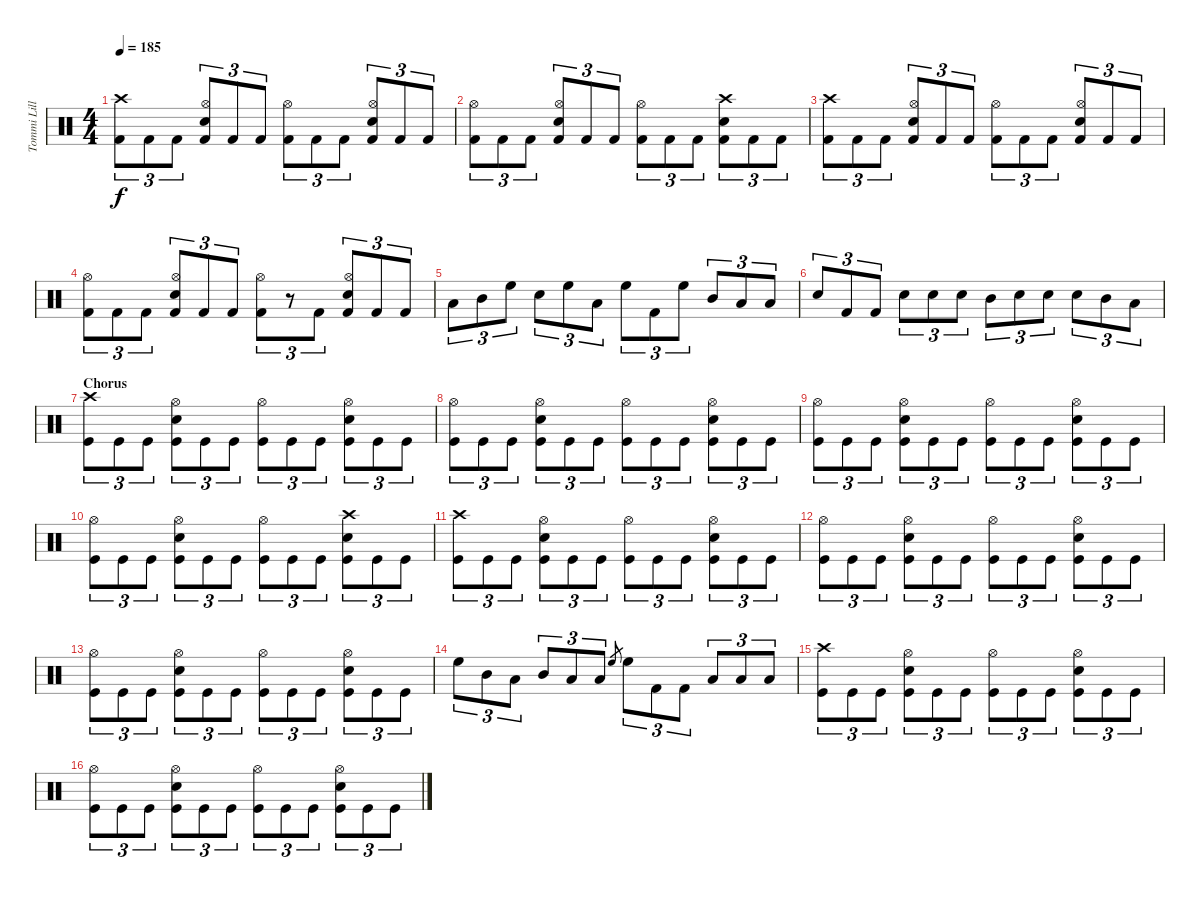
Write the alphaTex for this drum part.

\track ("Tommi Lillman" "Tommi Lill") {instrument percussion}
\staff {score}
\articulation defaults
\ts (4 4)
\tempo 185
\clef neutral
\ks c
("Crash high (hit)" "Kick (hit) 2").8{tu (3 2) dy f} "Kick (hit) 2".8{tu (3 2)} "Kick (hit) 2".8{tu (3 2)} ("Hi-Hat (open)" "Snare (hit) 2" "Kick (hit) 2").8{tu (3 2)} "Kick (hit) 2".8{tu (3 2)} "Kick (hit) 2".8{tu (3 2)} ("Hi-Hat (open)" "Kick (hit) 2").8{tu (3 2)} "Kick (hit) 2".8{tu (3 2)} "Kick (hit) 2".8{tu (3 2)} ("Hi-Hat (open)" "Snare (hit) 2" "Kick (hit) 2").8{tu (3 2)} "Kick (hit) 2".8{tu (3 2)} "Kick (hit) 2".8{tu (3 2)} |
("Hi-Hat (open)" "Kick (hit) 2").8{tu (3 2)} "Kick (hit) 2".8{tu (3 2)} "Kick (hit) 2".8{tu (3 2)} ("Hi-Hat (open)" "Snare (hit) 2" "Kick (hit) 2").8{tu (3 2)} "Kick (hit) 2".8{tu (3 2)} "Kick (hit) 2".8{tu (3 2)} ("Hi-Hat (open)" "Kick (hit) 2").8{tu (3 2)} "Kick (hit) 2".8{tu (3 2)} "Kick (hit) 2".8{tu (3 2)} ("Crash high (hit)" "Snare (hit) 2" "Kick (hit) 2").8{tu (3 2)} "Kick (hit) 2".8{tu (3 2)} "Kick (hit) 2".8{tu (3 2)} |
("Crash high (hit)" "Kick (hit) 2").8{tu (3 2)} "Kick (hit) 2".8{tu (3 2)} "Kick (hit) 2".8{tu (3 2)} ("Hi-Hat (open)" "Snare (hit) 2" "Kick (hit) 2").8{tu (3 2)} "Kick (hit) 2".8{tu (3 2)} "Kick (hit) 2".8{tu (3 2)} ("Hi-Hat (open)" "Kick (hit) 2").8{tu (3 2)} "Kick (hit) 2".8{tu (3 2)} "Kick (hit) 2".8{tu (3 2)} ("Hi-Hat (open)" "Snare (hit) 2" "Kick (hit) 2").8{tu (3 2)} "Kick (hit) 2".8{tu (3 2)} "Kick (hit) 2".8{tu (3 2)} |
("Hi-Hat (open)" "Kick (hit) 2").8{tu (3 2)} "Kick (hit) 2".8{tu (3 2)} "Kick (hit) 2".8{tu (3 2)} ("Hi-Hat (open)" "Snare (hit) 2" "Kick (hit) 2").8{tu (3 2)} "Kick (hit) 2".8{tu (3 2)} "Kick (hit) 2".8{tu (3 2)} ("Hi-Hat (open)" "Kick (hit) 2").8{tu (3 2)} r.8{tu (3 2)} "Kick (hit) 2".8{tu (3 2)} ("Hi-Hat (open)" "Snare (hit) 2" "Kick (hit) 2").8{tu (3 2)} "Kick (hit) 2".8{tu (3 2)} "Kick (hit) 2".8{tu (3 2)} |
"Low Tom (hit)".8{tu (3 2)} "Mid Tom (hit)".8{tu (3 2)} "High Floor Tom (hit)".8{tu (3 2)} "Snare (hit) 2".8{tu (3 2)} "High Floor Tom (hit)".8{tu (3 2)} "Low Floor Tom (hit)".8{tu (3 2)} "High Floor Tom (hit)".8{tu (3 2)} "Kick (hit) 2".8{tu (3 2)} "High Floor Tom (hit)".8{tu (3 2)} "Mid Tom (hit)".8{tu (3 2)} "Low Tom (hit)".8{tu (3 2)} "Low Tom (hit)".8{tu (3 2)} |
"Snare (hit) 2".8{tu (3 2)} "Kick (hit) 2".8{tu (3 2)} "Kick (hit) 2".8{tu (3 2)} "Snare (hit) 2".8{tu (3 2)} "Snare (hit) 2".8{tu (3 2)} "Snare (hit) 2".8{tu (3 2)} "Mid Tom (hit)".8{tu (3 2)} "Snare (hit) 2".8{tu (3 2)} "Snare (hit) 2".8{tu (3 2)} "Snare (hit) 2".8{tu (3 2)} "Mid Tom (hit)".8{tu (3 2)} "Low Tom (hit)".8{tu (3 2)} |
\section ("" "Chorus")
("Crash high (hit)" "Kick (hit)").8{tu (3 2)} "Kick (hit)".8{tu (3 2)} "Kick (hit)".8{tu (3 2)} ("Hi-Hat (open)" "Snare (hit) 2" "Kick (hit)").8{tu (3 2)} "Kick (hit)".8{tu (3 2)} "Kick (hit)".8{tu (3 2)} ("Hi-Hat (open)" "Kick (hit)").8{tu (3 2)} "Kick (hit)".8{tu (3 2)} "Kick (hit)".8{tu (3 2)} ("Hi-Hat (open)" "Snare (hit) 2" "Kick (hit)").8{tu (3 2)} "Kick (hit)".8{tu (3 2)} "Kick (hit)".8{tu (3 2)} |
("Hi-Hat (open)" "Kick (hit)").8{tu (3 2)} "Kick (hit)".8{tu (3 2)} "Kick (hit)".8{tu (3 2)} ("Hi-Hat (open)" "Snare (hit) 2" "Kick (hit)").8{tu (3 2)} "Kick (hit)".8{tu (3 2)} "Kick (hit)".8{tu (3 2)} ("Hi-Hat (open)" "Kick (hit)").8{tu (3 2)} "Kick (hit)".8{tu (3 2)} "Kick (hit)".8{tu (3 2)} ("Hi-Hat (open)" "Snare (hit) 2" "Kick (hit)").8{tu (3 2)} "Kick (hit)".8{tu (3 2)} "Kick (hit)".8{tu (3 2)} |
("Hi-Hat (open)" "Kick (hit)").8{tu (3 2)} "Kick (hit)".8{tu (3 2)} "Kick (hit)".8{tu (3 2)} ("Hi-Hat (open)" "Snare (hit) 2" "Kick (hit)").8{tu (3 2)} "Kick (hit)".8{tu (3 2)} "Kick (hit)".8{tu (3 2)} ("Hi-Hat (open)" "Kick (hit)").8{tu (3 2)} "Kick (hit)".8{tu (3 2)} "Kick (hit)".8{tu (3 2)} ("Hi-Hat (open)" "Snare (hit) 2" "Kick (hit)").8{tu (3 2)} "Kick (hit)".8{tu (3 2)} "Kick (hit)".8{tu (3 2)} |
("Hi-Hat (open)" "Kick (hit)").8{tu (3 2)} "Kick (hit)".8{tu (3 2)} "Kick (hit)".8{tu (3 2)} ("Hi-Hat (open)" "Snare (hit) 2" "Kick (hit)").8{tu (3 2)} "Kick (hit)".8{tu (3 2)} "Kick (hit)".8{tu (3 2)} ("Hi-Hat (open)" "Kick (hit)").8{tu (3 2)} "Kick (hit)".8{tu (3 2)} "Kick (hit)".8{tu (3 2)} ("Crash high (hit)" "Snare (hit) 2" "Kick (hit)").8{tu (3 2)} "Kick (hit)".8{tu (3 2)} "Kick (hit)".8{tu (3 2)} |
("Crash high (hit)" "Kick (hit)").8{tu (3 2)} "Kick (hit)".8{tu (3 2)} "Kick (hit)".8{tu (3 2)} ("Hi-Hat (open)" "Snare (hit) 2" "Kick (hit)").8{tu (3 2)} "Kick (hit)".8{tu (3 2)} "Kick (hit)".8{tu (3 2)} ("Hi-Hat (open)" "Kick (hit)").8{tu (3 2)} "Kick (hit)".8{tu (3 2)} "Kick (hit)".8{tu (3 2)} ("Hi-Hat (open)" "Snare (hit) 2" "Kick (hit)").8{tu (3 2)} "Kick (hit)".8{tu (3 2)} "Kick (hit)".8{tu (3 2)} |
("Hi-Hat (open)" "Kick (hit)").8{tu (3 2)} "Kick (hit)".8{tu (3 2)} "Kick (hit)".8{tu (3 2)} ("Hi-Hat (open)" "Snare (hit) 2" "Kick (hit)").8{tu (3 2)} "Kick (hit)".8{tu (3 2)} "Kick (hit)".8{tu (3 2)} ("Hi-Hat (open)" "Kick (hit)").8{tu (3 2)} "Kick (hit)".8{tu (3 2)} "Kick (hit)".8{tu (3 2)} ("Hi-Hat (open)" "Snare (hit) 2" "Kick (hit)").8{tu (3 2)} "Kick (hit)".8{tu (3 2)} "Kick (hit)".8{tu (3 2)} |
("Hi-Hat (open)" "Kick (hit)").8{tu (3 2)} "Kick (hit)".8{tu (3 2)} "Kick (hit)".8{tu (3 2)} ("Hi-Hat (open)" "Snare (hit) 2" "Kick (hit)").8{tu (3 2)} "Kick (hit)".8{tu (3 2)} "Kick (hit)".8{tu (3 2)} ("Hi-Hat (open)" "Kick (hit)").8{tu (3 2)} "Kick (hit)".8{tu (3 2)} "Kick (hit)".8{tu (3 2)} ("Hi-Hat (open)" "Snare (hit) 2" "Kick (hit)").8{tu (3 2)} "Kick (hit)".8{tu (3 2)} "Kick (hit)".8{tu (3 2)} |
"High Floor Tom (hit)".8{tu (3 2)} "Mid Tom (hit)".8{tu (3 2)} "Low Tom (hit)".8{tu (3 2)} "Mid Tom (hit)".8{tu (3 2)} "Low Tom (hit)".8{tu (3 2)} "Low Tom (hit)".8{tu (3 2)} "High Floor Tom (hit)".8{gr} "High Floor Tom (hit)".8{tu (3 2)} "Kick (hit) 2".8{tu (3 2)} "Kick (hit) 2".8{tu (3 2)} "Low Tom (hit)".8{tu (3 2)} "Low Tom (hit)".8{tu (3 2)} "Low Floor Tom (hit)".8{tu (3 2)} |
("Crash high (hit)" "Kick (hit)").8{tu (3 2)} "Kick (hit)".8{tu (3 2)} "Kick (hit)".8{tu (3 2)} ("Hi-Hat (open)" "Snare (hit) 2" "Kick (hit)").8{tu (3 2)} "Kick (hit)".8{tu (3 2)} "Kick (hit)".8{tu (3 2)} ("Hi-Hat (open)" "Kick (hit)").8{tu (3 2)} "Kick (hit)".8{tu (3 2)} "Kick (hit)".8{tu (3 2)} ("Hi-Hat (open)" "Snare (hit) 2" "Kick (hit)").8{tu (3 2)} "Kick (hit)".8{tu (3 2)} "Kick (hit)".8{tu (3 2)} |
("Hi-Hat (open)" "Kick (hit)").8{tu (3 2)} "Kick (hit)".8{tu (3 2)} "Kick (hit)".8{tu (3 2)} ("Hi-Hat (open)" "Snare (hit) 2" "Kick (hit)").8{tu (3 2)} "Kick (hit)".8{tu (3 2)} "Kick (hit)".8{tu (3 2)} ("Hi-Hat (open)" "Kick (hit)").8{tu (3 2)} "Kick (hit)".8{tu (3 2)} "Kick (hit)".8{tu (3 2)} ("Hi-Hat (open)" "Snare (hit) 2" "Kick (hit)").8{tu (3 2)} "Kick (hit)".8{tu (3 2)} "Kick (hit)".8{tu (3 2)}
